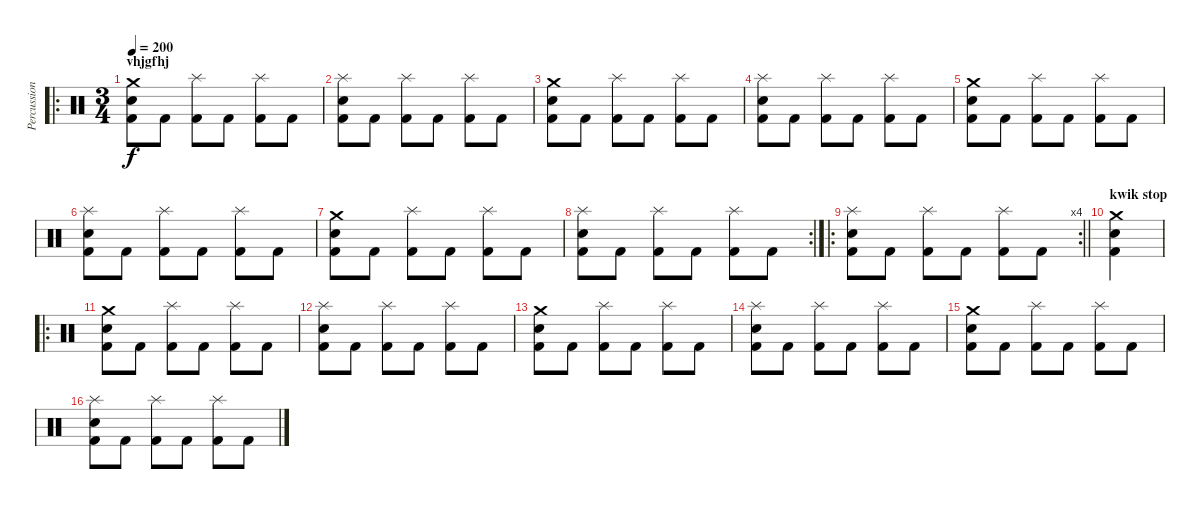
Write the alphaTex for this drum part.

\track ("Percussion" "Percussion") {instrument percussion}
\staff {score}
\articulation defaults
\ro
\ts (3 4)
\section ("" "vhjgfhj")
\tempo 200
\clef neutral
\ks c
("Crash medium (hit)" "Electric Snare (hit)" "Kick (hit) 2").8{dy f} "Kick (hit) 2".8 ("Splash (hit)" "Kick (hit) 2").8 "Kick (hit) 2".8 ("Splash (hit)" "Kick (hit) 2").8 "Kick (hit) 2".8 |
("Splash (hit)" "Electric Snare (hit)" "Kick (hit) 2").8 "Kick (hit) 2".8 ("Splash (hit)" "Kick (hit) 2").8 "Kick (hit) 2".8 ("Splash (hit)" "Kick (hit) 2").8 "Kick (hit) 2".8 |
("Crash medium (hit)" "Electric Snare (hit)" "Kick (hit) 2").8 "Kick (hit) 2".8 ("Splash (hit)" "Kick (hit) 2").8 "Kick (hit) 2".8 ("Splash (hit)" "Kick (hit) 2").8 "Kick (hit) 2".8 |
("Splash (hit)" "Electric Snare (hit)" "Kick (hit) 2").8 "Kick (hit) 2".8 ("Splash (hit)" "Kick (hit) 2").8 "Kick (hit) 2".8 ("Splash (hit)" "Kick (hit) 2").8 "Kick (hit) 2".8 |
("Crash medium (hit)" "Electric Snare (hit)" "Kick (hit) 2").8 "Kick (hit) 2".8 ("Splash (hit)" "Kick (hit) 2").8 "Kick (hit) 2".8 ("Splash (hit)" "Kick (hit) 2").8 "Kick (hit) 2".8 |
("Splash (hit)" "Electric Snare (hit)" "Kick (hit) 2").8 "Kick (hit) 2".8 ("Splash (hit)" "Kick (hit) 2").8 "Kick (hit) 2".8 ("Splash (hit)" "Kick (hit) 2").8 "Kick (hit) 2".8 |
("Crash medium (hit)" "Electric Snare (hit)" "Kick (hit) 2").8 "Kick (hit) 2".8 ("Splash (hit)" "Kick (hit) 2").8 "Kick (hit) 2".8 ("Splash (hit)" "Kick (hit) 2").8 "Kick (hit) 2".8 |
\rc 2
("Splash (hit)" "Electric Snare (hit)" "Kick (hit) 2").8 "Kick (hit) 2".8 ("Splash (hit)" "Kick (hit) 2").8 "Kick (hit) 2".8 ("Splash (hit)" "Kick (hit) 2").8 "Kick (hit) 2".8 |
\ro
\rc 4
\barLineRight lightlight
("Splash (hit)" "Electric Snare (hit)" "Kick (hit) 2").8 "Kick (hit) 2".8 ("Splash (hit)" "Kick (hit) 2").8 "Kick (hit) 2".8 ("Splash (hit)" "Kick (hit) 2").8 "Kick (hit) 2".8 |
\section ("" "kwik stop")
("Crash medium (hit)" "Electric Snare (hit)" "Kick (hit) 2").4 |
\ro
("Crash medium (hit)" "Electric Snare (hit)" "Kick (hit) 2").8 "Kick (hit) 2".8 ("Splash (hit)" "Kick (hit) 2").8 "Kick (hit) 2".8 ("Splash (hit)" "Kick (hit) 2").8 "Kick (hit) 2".8 |
("Splash (hit)" "Electric Snare (hit)" "Kick (hit) 2").8 "Kick (hit) 2".8 ("Splash (hit)" "Kick (hit) 2").8 "Kick (hit) 2".8 ("Splash (hit)" "Kick (hit) 2").8 "Kick (hit) 2".8 |
("Crash medium (hit)" "Electric Snare (hit)" "Kick (hit) 2").8 "Kick (hit) 2".8 ("Splash (hit)" "Kick (hit) 2").8 "Kick (hit) 2".8 ("Splash (hit)" "Kick (hit) 2").8 "Kick (hit) 2".8 |
("Splash (hit)" "Electric Snare (hit)" "Kick (hit) 2").8 "Kick (hit) 2".8 ("Splash (hit)" "Kick (hit) 2").8 "Kick (hit) 2".8 ("Splash (hit)" "Kick (hit) 2").8 "Kick (hit) 2".8 |
("Crash medium (hit)" "Electric Snare (hit)" "Kick (hit) 2").8 "Kick (hit) 2".8 ("Splash (hit)" "Kick (hit) 2").8 "Kick (hit) 2".8 ("Splash (hit)" "Kick (hit) 2").8 "Kick (hit) 2".8 |
("Splash (hit)" "Electric Snare (hit)" "Kick (hit) 2").8 "Kick (hit) 2".8 ("Splash (hit)" "Kick (hit) 2").8 "Kick (hit) 2".8 ("Splash (hit)" "Kick (hit) 2").8 "Kick (hit) 2".8
